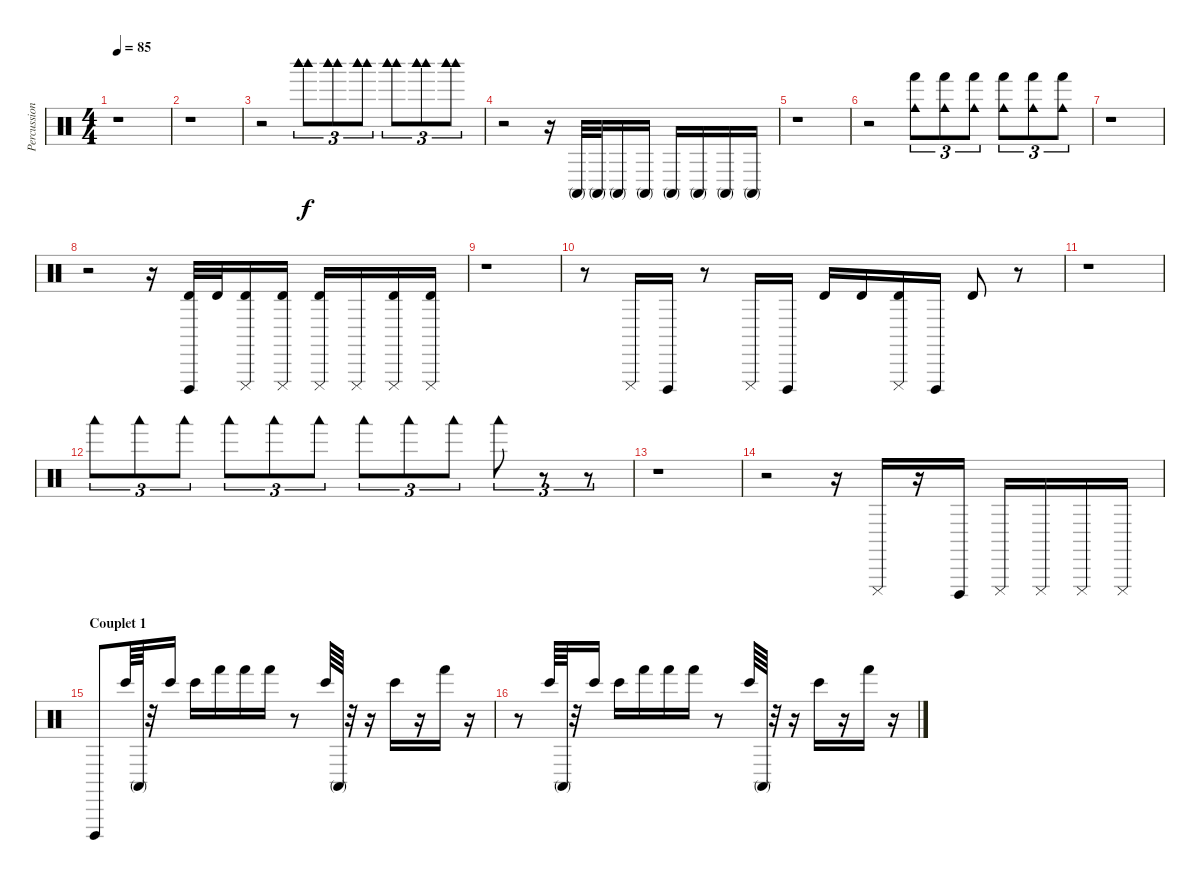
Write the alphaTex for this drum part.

\track ("Percussions" "Percussion") {instrument percussion}
\staff {score}
\articulation defaults
\ts (4 4)
\tempo 85
\clef neutral
\ks c
r.1{dy f} |
r.1 |
r.2 ("Woodblock high (hit)" "Woodblock high (hit)" "Woodblock high (hit)").8{tu (3 2)} ("Woodblock high (hit)" "Woodblock high (hit)" "Woodblock high (hit)").8{tu (3 2)} ("Woodblock high (hit)" "Woodblock high (hit)" "Woodblock high (hit)").8{tu (3 2)} ("Woodblock high (hit)" "Woodblock high (hit)" "Woodblock high (hit)").8{tu (3 2)} ("Woodblock high (hit)" "Woodblock high (hit)" "Woodblock high (hit)").8{tu (3 2)} ("Woodblock high (hit)" "Woodblock high (hit)" "Woodblock high (hit)").8{tu (3 2)} |
r.2 r.16 "Conga high (mute)".32 "Conga high (mute)".32 "Conga high (mute)".16 "Conga high (mute)".16 "Conga high (mute)".16 "Conga high (mute)".16 "Conga high (mute)".16 "Conga high (mute)".16 |
r.1 |
r.2 ("Cowbell medium (hit)" "Hand (hit)").8{tu (3 2)} ("Cowbell medium (hit)" "Hand (hit)").8{tu (3 2)} ("Cowbell medium (hit)" "Hand (hit)").8{tu (3 2)} ("Cowbell medium (hit)" "Hand (hit)").8{tu (3 2)} ("Cowbell medium (hit)" "Hand (hit)").8{tu (3 2)} ("Cowbell medium (hit)" "Hand (hit)").8{tu (3 2)} |
r.1 |
r.2 r.16 ("Cuica (open)" "Timbale high (hit)").32 "Timbale high (hit)".32 ("Cuica (mute)" "Timbale high (hit)").16 ("Cuica (mute)" "Timbale high (hit)").16 ("Cuica (mute)" "Timbale high (hit)").16 "Cuica (mute)".16 ("Cuica (mute)" "Timbale high (hit)").16 ("Cuica (mute)" "Timbale high (hit)").16 |
r.1 |
r.8 "Cuica (mute)".16 "Cuica (open)".16 r.8 "Cuica (mute)".16 "Cuica (open)".16 "Timbale high (hit)".16 "Timbale high (hit)".16 ("Cuica (mute)" "Timbale high (hit)").16 "Cuica (open)".16 "Timbale high (hit)".8 r.8 |
r.1 |
"Woodblock low (hit)".8{tu (3 2)} "Woodblock low (hit)".8{tu (3 2)} "Woodblock low (hit)".8{tu (3 2)} "Woodblock low (hit)".8{tu (3 2)} "Woodblock low (hit)".8{tu (3 2)} "Woodblock low (hit)".8{tu (3 2)} "Woodblock low (hit)".8{tu (3 2)} "Woodblock low (hit)".8{tu (3 2)} "Woodblock low (hit)".8{tu (3 2)} "Woodblock low (hit)".8{tu (3 2)} r.8{tu (3 2)} r.8{tu (3 2)} |
r.1 |
r.2 r.16 "Cuica (mute)".16 r.16 "Cuica (open)".16 "Cuica (mute)".16 "Cuica (mute)".16 "Cuica (mute)".16 "Cuica (mute)".16 |
\section ("" "Couplet 1")
"Cuica (open)".8 "Bongo High (hit)".64 "Conga high (mute)".64 r.32 "Bongo High (hit)".16 "Bongo High (hit)".16 "Hand (hit)".16 "Hand (hit)".16 "Hand (hit)".16 r.8 "Bongo High (hit)".64 "Conga high (mute)".64 r.32 r.16 "Bongo High (hit)".16 r.16 "Hand (hit)".16 r.16 |
r.8 "Bongo High (hit)".64 "Conga high (mute)".64 r.32 "Bongo High (hit)".16 "Bongo High (hit)".16 "Hand (hit)".16 "Hand (hit)".16 "Hand (hit)".16 r.8 "Bongo High (hit)".64 "Conga high (mute)".64 r.32 r.16 "Bongo High (hit)".16 r.16 "Hand (hit)".16 r.16
